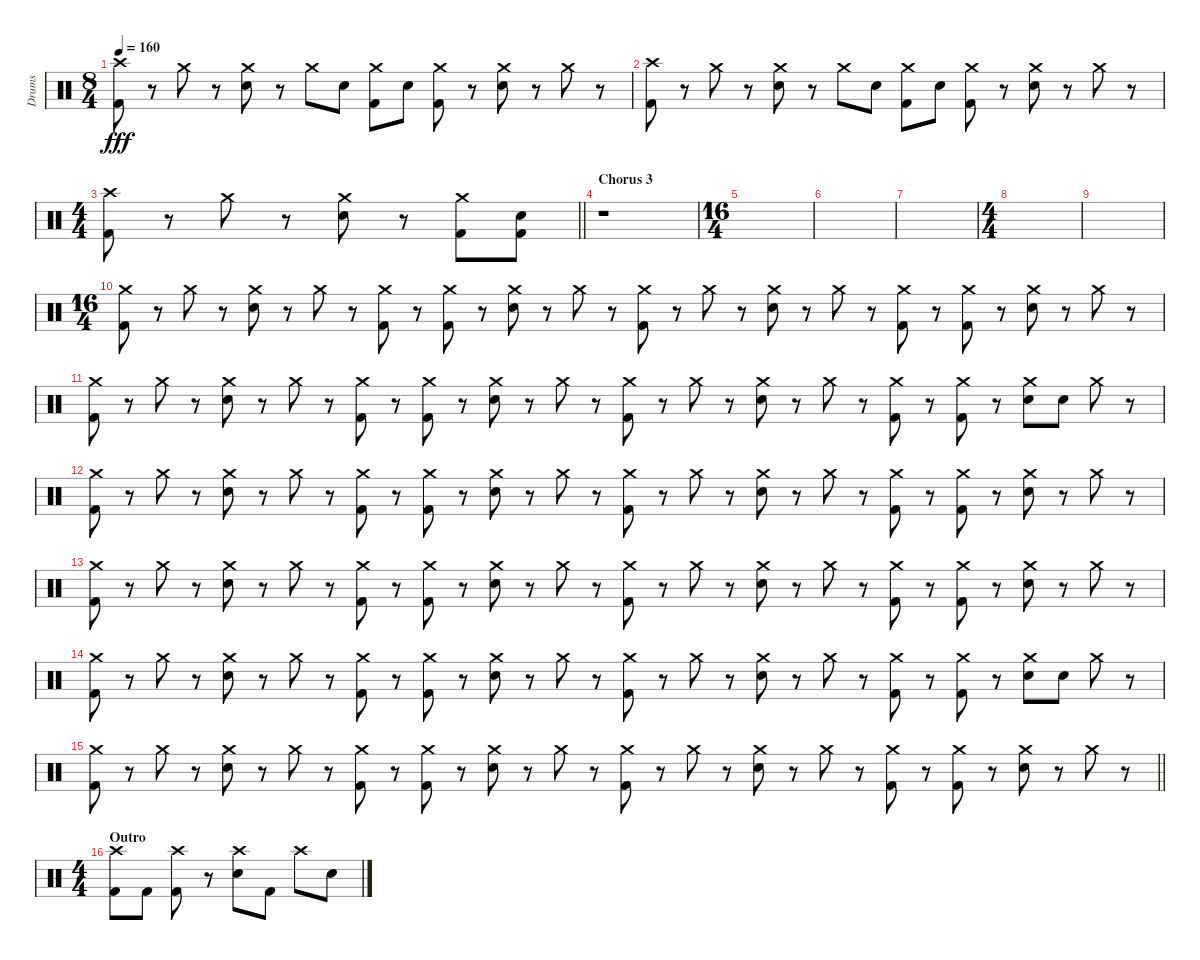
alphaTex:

\track ("Drums" "Drums") {instrument percussion}
\staff {score}
\articulation defaults
\ts (8 4)
\tempo 160
\clef neutral
\ks c
("Crash high (hit)" "Kick (hit) 2").8{dy fff} r.8 "Crash medium (hit)".8 r.8 ("Crash medium (hit)" "Snare (hit) 2").8 r.8 "Crash medium (hit)".8 "Snare (hit) 2".8 ("Crash medium (hit)" "Kick (hit) 2").8 "Snare (hit) 2".8 ("Crash medium (hit)" "Kick (hit) 2").8 r.8 ("Crash medium (hit)" "Snare (hit) 2").8 r.8 "Crash medium (hit)".8 r.8 |
("Crash high (hit)" "Kick (hit) 2").8 r.8 "Crash medium (hit)".8 r.8 ("Crash medium (hit)" "Snare (hit) 2").8 r.8 "Crash medium (hit)".8 "Snare (hit) 2".8 ("Crash medium (hit)" "Kick (hit) 2").8 "Snare (hit) 2".8 ("Crash medium (hit)" "Kick (hit) 2").8 r.8 ("Crash medium (hit)" "Snare (hit) 2").8 r.8 "Crash medium (hit)".8 r.8 |
\ts (4 4)
\barLineRight lightlight
("Crash high (hit)" "Kick (hit) 2").8 r.8 "Crash medium (hit)".8 r.8 ("Crash medium (hit)" "Snare (hit) 2").8 r.8 ("Crash medium (hit)" "Kick (hit) 2").8 ("Snare (hit) 2" "Kick (hit) 2").8 |
\section ("" "Chorus 3")
r.1 |
\ts (16 4)
|
|
|
\ts (4 4)
|
|
\ts (16 4)
("Crash medium (hit)" "Kick (hit) 2").8 r.8 "Crash medium (hit)".8 r.8 ("Crash medium (hit)" "Snare (hit) 2").8 r.8 "Crash medium (hit)".8 r.8 ("Crash medium (hit)" "Kick (hit) 2").8 r.8 ("Crash medium (hit)" "Kick (hit) 2").8 r.8 ("Crash medium (hit)" "Snare (hit) 2").8 r.8 "Crash medium (hit)".8 r.8 ("Crash medium (hit)" "Kick (hit) 2").8 r.8 "Crash medium (hit)".8 r.8 ("Crash medium (hit)" "Snare (hit) 2").8 r.8 "Crash medium (hit)".8 r.8 ("Crash medium (hit)" "Kick (hit) 2").8 r.8 ("Crash medium (hit)" "Kick (hit) 2").8 r.8 ("Crash medium (hit)" "Snare (hit) 2").8 r.8 "Crash medium (hit)".8 r.8 |
("Crash medium (hit)" "Kick (hit) 2").8 r.8 "Crash medium (hit)".8 r.8 ("Crash medium (hit)" "Snare (hit) 2").8 r.8 "Crash medium (hit)".8 r.8 ("Crash medium (hit)" "Kick (hit) 2").8 r.8 ("Crash medium (hit)" "Kick (hit) 2").8 r.8 ("Crash medium (hit)" "Snare (hit) 2").8 r.8 "Crash medium (hit)".8 r.8 ("Crash medium (hit)" "Kick (hit) 2").8 r.8 "Crash medium (hit)".8 r.8 ("Crash medium (hit)" "Snare (hit) 2").8 r.8 "Crash medium (hit)".8 r.8 ("Crash medium (hit)" "Kick (hit) 2").8 r.8 ("Crash medium (hit)" "Kick (hit) 2").8 r.8 ("Crash medium (hit)" "Snare (hit) 2").8 "Snare (hit) 2".8 "Crash medium (hit)".8 r.8 |
("Crash medium (hit)" "Kick (hit) 2").8 r.8 "Crash medium (hit)".8 r.8 ("Crash medium (hit)" "Snare (hit) 2").8 r.8 "Crash medium (hit)".8 r.8 ("Crash medium (hit)" "Kick (hit) 2").8 r.8 ("Crash medium (hit)" "Kick (hit) 2").8 r.8 ("Crash medium (hit)" "Snare (hit) 2").8 r.8 "Crash medium (hit)".8 r.8 ("Crash medium (hit)" "Kick (hit) 2").8 r.8 "Crash medium (hit)".8 r.8 ("Crash medium (hit)" "Snare (hit) 2").8 r.8 "Crash medium (hit)".8 r.8 ("Crash medium (hit)" "Kick (hit) 2").8 r.8 ("Crash medium (hit)" "Kick (hit) 2").8 r.8 ("Crash medium (hit)" "Snare (hit) 2").8 r.8 "Crash medium (hit)".8 r.8 |
("Crash medium (hit)" "Kick (hit) 2").8 r.8 "Crash medium (hit)".8 r.8 ("Crash medium (hit)" "Snare (hit) 2").8 r.8 "Crash medium (hit)".8 r.8 ("Crash medium (hit)" "Kick (hit) 2").8 r.8 ("Crash medium (hit)" "Kick (hit) 2").8 r.8 ("Crash medium (hit)" "Snare (hit) 2").8 r.8 "Crash medium (hit)".8 r.8 ("Crash medium (hit)" "Kick (hit) 2").8 r.8 "Crash medium (hit)".8 r.8 ("Crash medium (hit)" "Snare (hit) 2").8 r.8 "Crash medium (hit)".8 r.8 ("Crash medium (hit)" "Kick (hit) 2").8 r.8 ("Crash medium (hit)" "Kick (hit) 2").8 r.8 ("Crash medium (hit)" "Snare (hit) 2").8 r.8 "Crash medium (hit)".8 r.8 |
("Crash medium (hit)" "Kick (hit) 2").8 r.8 "Crash medium (hit)".8 r.8 ("Crash medium (hit)" "Snare (hit) 2").8 r.8 "Crash medium (hit)".8 r.8 ("Crash medium (hit)" "Kick (hit) 2").8 r.8 ("Crash medium (hit)" "Kick (hit) 2").8 r.8 ("Crash medium (hit)" "Snare (hit) 2").8 r.8 "Crash medium (hit)".8 r.8 ("Crash medium (hit)" "Kick (hit) 2").8 r.8 "Crash medium (hit)".8 r.8 ("Crash medium (hit)" "Snare (hit) 2").8 r.8 "Crash medium (hit)".8 r.8 ("Crash medium (hit)" "Kick (hit) 2").8 r.8 ("Crash medium (hit)" "Kick (hit) 2").8 r.8 ("Crash medium (hit)" "Snare (hit) 2").8 "Snare (hit) 2".8 "Crash medium (hit)".8 r.8 |
\barLineRight lightlight
("Crash medium (hit)" "Kick (hit) 2").8 r.8 "Crash medium (hit)".8 r.8 ("Crash medium (hit)" "Snare (hit) 2").8 r.8 "Crash medium (hit)".8 r.8 ("Crash medium (hit)" "Kick (hit) 2").8 r.8 ("Crash medium (hit)" "Kick (hit) 2").8 r.8 ("Crash medium (hit)" "Snare (hit) 2").8 r.8 "Crash medium (hit)".8 r.8 ("Crash medium (hit)" "Kick (hit) 2").8 r.8 "Crash medium (hit)".8 r.8 ("Crash medium (hit)" "Snare (hit) 2").8 r.8 "Crash medium (hit)".8 r.8 ("Crash medium (hit)" "Kick (hit) 2").8 r.8 ("Crash medium (hit)" "Kick (hit) 2").8 r.8 ("Crash medium (hit)" "Snare (hit) 2").8 r.8 "Crash medium (hit)".8 r.8 |
\ts (4 4)
\section ("" "Outro")
("Crash high (hit)" "Kick (hit) 2").8 "Kick (hit) 2".8 ("Crash high (hit)" "Kick (hit) 2").8 r.8 ("Crash high (hit)" "Snare (hit) 2").8 "Kick (hit) 2".8 "Crash high (hit)".8 "Snare (hit) 2".8
